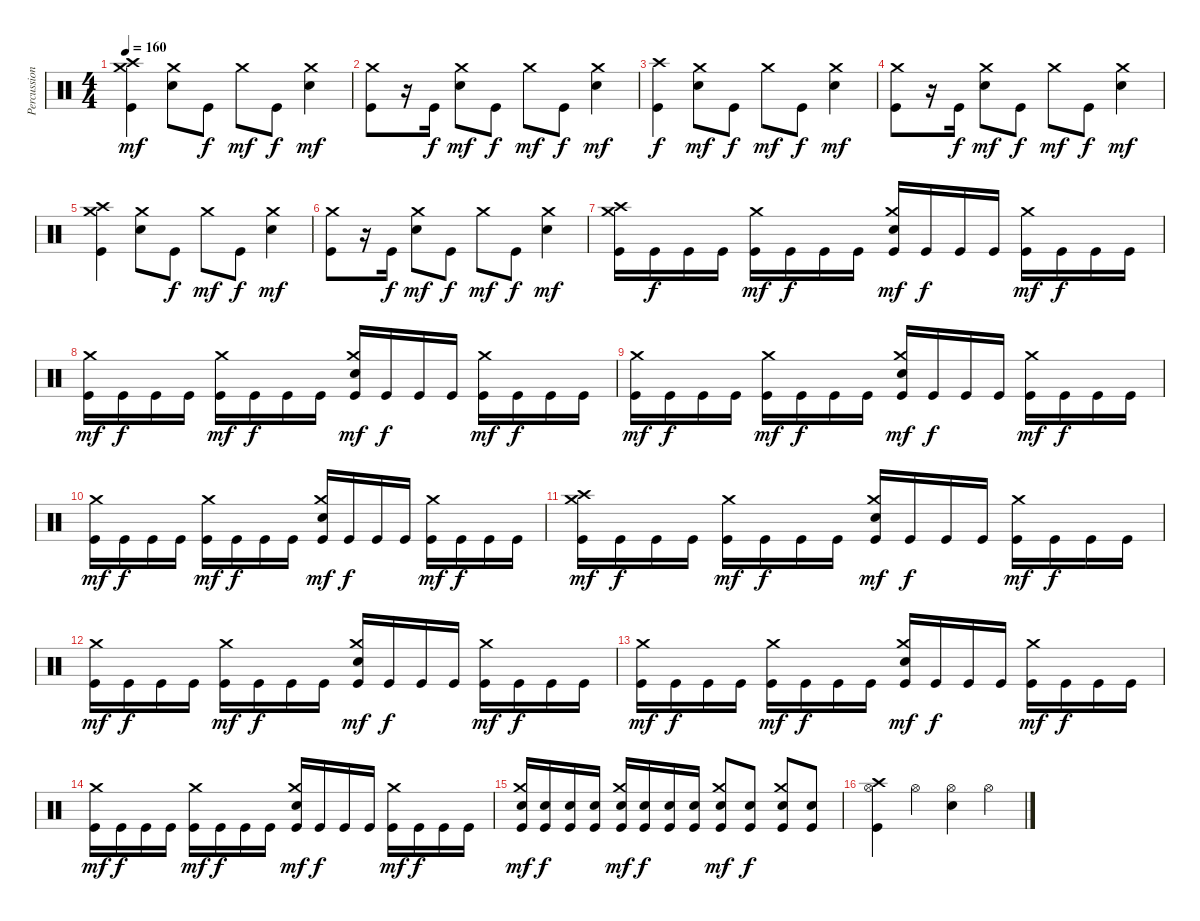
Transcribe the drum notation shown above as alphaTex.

\track ("Percussion" "Percussion") {instrument percussion}
\staff {score}
\articulation defaults
\ts (4 4)
\tempo 160
\clef neutral
\ks c
("Kick (hit)" "Crash medium (hit)" "Crash high (hit)").4{dy mf} ("Electric Snare (hit)" "Crash medium (hit)").8 "Kick (hit)".8{dy f} "Crash medium (hit)".8{dy mf} "Kick (hit)".8{dy f} ("Electric Snare (hit)" "Crash medium (hit)").4{dy mf} |
("Kick (hit)" "Crash medium (hit)").8 r.16 "Kick (hit)".16{dy f} ("Electric Snare (hit)" "Crash medium (hit)").8{dy mf} "Kick (hit)".8{dy f} "Crash medium (hit)".8{dy mf} "Kick (hit)".8{dy f} ("Electric Snare (hit)" "Crash medium (hit)").4{dy mf} |
("Kick (hit)" "Crash high (hit)").4{dy f} ("Electric Snare (hit)" "Crash medium (hit)").8{dy mf} "Kick (hit)".8{dy f} "Crash medium (hit)".8{dy mf} "Kick (hit)".8{dy f} ("Electric Snare (hit)" "Crash medium (hit)").4{dy mf} |
("Kick (hit)" "Crash medium (hit)").8 r.16 "Kick (hit)".16{dy f} ("Electric Snare (hit)" "Crash medium (hit)").8{dy mf} "Kick (hit)".8{dy f} "Crash medium (hit)".8{dy mf} "Kick (hit)".8{dy f} ("Electric Snare (hit)" "Crash medium (hit)").4{dy mf} |
("Kick (hit)" "Crash medium (hit)" "Crash high (hit)").4 ("Electric Snare (hit)" "Crash medium (hit)").8 "Kick (hit)".8{dy f} "Crash medium (hit)".8{dy mf} "Kick (hit)".8{dy f} ("Electric Snare (hit)" "Crash medium (hit)").4{dy mf} |
("Kick (hit)" "Crash medium (hit)").8 r.16 "Kick (hit)".16{dy f} ("Electric Snare (hit)" "Crash medium (hit)").8{dy mf} "Kick (hit)".8{dy f} "Crash medium (hit)".8{dy mf} "Kick (hit)".8{dy f} ("Electric Snare (hit)" "Crash medium (hit)").4{dy mf} |
("Kick (hit)" "Crash medium (hit)" "Crash high (hit)").16 "Kick (hit)".16{dy f} "Kick (hit)".16 "Kick (hit)".16 ("Kick (hit)" "Crash medium (hit)").16{dy mf} "Kick (hit)".16{dy f} "Kick (hit)".16 "Kick (hit)".16 ("Kick (hit)" "Electric Snare (hit)" "Crash medium (hit)").16{dy mf} "Kick (hit)".16{dy f} "Kick (hit)".16 "Kick (hit)".16 ("Kick (hit)" "Crash medium (hit)").16{dy mf} "Kick (hit)".16{dy f} "Kick (hit)".16 "Kick (hit)".16 |
("Kick (hit)" "Crash medium (hit)").16{dy mf} "Kick (hit)".16{dy f} "Kick (hit)".16 "Kick (hit)".16 ("Kick (hit)" "Crash medium (hit)").16{dy mf} "Kick (hit)".16{dy f} "Kick (hit)".16 "Kick (hit)".16 ("Kick (hit)" "Electric Snare (hit)" "Crash medium (hit)").16{dy mf} "Kick (hit)".16{dy f} "Kick (hit)".16 "Kick (hit)".16 ("Kick (hit)" "Crash medium (hit)").16{dy mf} "Kick (hit)".16{dy f} "Kick (hit)".16 "Kick (hit)".16 |
("Kick (hit)" "Crash medium (hit)").16{dy mf} "Kick (hit)".16{dy f} "Kick (hit)".16 "Kick (hit)".16 ("Kick (hit)" "Crash medium (hit)").16{dy mf} "Kick (hit)".16{dy f} "Kick (hit)".16 "Kick (hit)".16 ("Kick (hit)" "Electric Snare (hit)" "Crash medium (hit)").16{dy mf} "Kick (hit)".16{dy f} "Kick (hit)".16 "Kick (hit)".16 ("Kick (hit)" "Crash medium (hit)").16{dy mf} "Kick (hit)".16{dy f} "Kick (hit)".16 "Kick (hit)".16 |
("Kick (hit)" "Crash medium (hit)").16{dy mf} "Kick (hit)".16{dy f} "Kick (hit)".16 "Kick (hit)".16 ("Kick (hit)" "Crash medium (hit)").16{dy mf} "Kick (hit)".16{dy f} "Kick (hit)".16 "Kick (hit)".16 ("Kick (hit)" "Electric Snare (hit)" "Crash medium (hit)").16{dy mf} "Kick (hit)".16{dy f} "Kick (hit)".16 "Kick (hit)".16 ("Kick (hit)" "Crash medium (hit)").16{dy mf} "Kick (hit)".16{dy f} "Kick (hit)".16 "Kick (hit)".16 |
("Kick (hit)" "Crash medium (hit)" "Crash high (hit)").16{dy mf} "Kick (hit)".16{dy f} "Kick (hit)".16 "Kick (hit)".16 ("Kick (hit)" "Crash medium (hit)").16{dy mf} "Kick (hit)".16{dy f} "Kick (hit)".16 "Kick (hit)".16 ("Kick (hit)" "Electric Snare (hit)" "Crash medium (hit)").16{dy mf} "Kick (hit)".16{dy f} "Kick (hit)".16 "Kick (hit)".16 ("Kick (hit)" "Crash medium (hit)").16{dy mf} "Kick (hit)".16{dy f} "Kick (hit)".16 "Kick (hit)".16 |
("Kick (hit)" "Crash medium (hit)").16{dy mf} "Kick (hit)".16{dy f} "Kick (hit)".16 "Kick (hit)".16 ("Kick (hit)" "Crash medium (hit)").16{dy mf} "Kick (hit)".16{dy f} "Kick (hit)".16 "Kick (hit)".16 ("Kick (hit)" "Electric Snare (hit)" "Crash medium (hit)").16{dy mf} "Kick (hit)".16{dy f} "Kick (hit)".16 "Kick (hit)".16 ("Kick (hit)" "Crash medium (hit)").16{dy mf} "Kick (hit)".16{dy f} "Kick (hit)".16 "Kick (hit)".16 |
("Kick (hit)" "Crash medium (hit)").16{dy mf} "Kick (hit)".16{dy f} "Kick (hit)".16 "Kick (hit)".16 ("Kick (hit)" "Crash medium (hit)").16{dy mf} "Kick (hit)".16{dy f} "Kick (hit)".16 "Kick (hit)".16 ("Kick (hit)" "Electric Snare (hit)" "Crash medium (hit)").16{dy mf} "Kick (hit)".16{dy f} "Kick (hit)".16 "Kick (hit)".16 ("Kick (hit)" "Crash medium (hit)").16{dy mf} "Kick (hit)".16{dy f} "Kick (hit)".16 "Kick (hit)".16 |
("Kick (hit)" "Crash medium (hit)").16{dy mf} "Kick (hit)".16{dy f} "Kick (hit)".16 "Kick (hit)".16 ("Kick (hit)" "Crash medium (hit)").16{dy mf} "Kick (hit)".16{dy f} "Kick (hit)".16 "Kick (hit)".16 ("Kick (hit)" "Electric Snare (hit)" "Crash medium (hit)").16{dy mf} "Kick (hit)".16{dy f} "Kick (hit)".16 "Kick (hit)".16 ("Kick (hit)" "Crash medium (hit)").16{dy mf} "Kick (hit)".16{dy f} "Kick (hit)".16 "Kick (hit)".16 |
("Kick (hit)" "Electric Snare (hit)" "Crash medium (hit)").16{dy mf} ("Kick (hit)" "Electric Snare (hit)").16{dy f} ("Kick (hit)" "Electric Snare (hit)").16 ("Kick (hit)" "Electric Snare (hit)").16 ("Kick (hit)" "Electric Snare (hit)" "Crash medium (hit)").16{dy mf} ("Kick (hit)" "Electric Snare (hit)").16{dy f} ("Kick (hit)" "Electric Snare (hit)").16 ("Kick (hit)" "Electric Snare (hit)").16 ("Kick (hit)" "Electric Snare (hit)" "Crash medium (hit)").8{dy mf} ("Kick (hit)" "Electric Snare (hit)").8{dy f} ("Kick (hit)" "Electric Snare (hit)" "Crash medium (hit)").8 ("Kick (hit)" "Electric Snare (hit)").8 |
("Kick (hit)" "Crash high (hit)" "Hi-Hat (open)").4 "Hi-Hat (open)".4 ("Electric Snare (hit)" "Hi-Hat (open)").4 "Hi-Hat (open)".4
